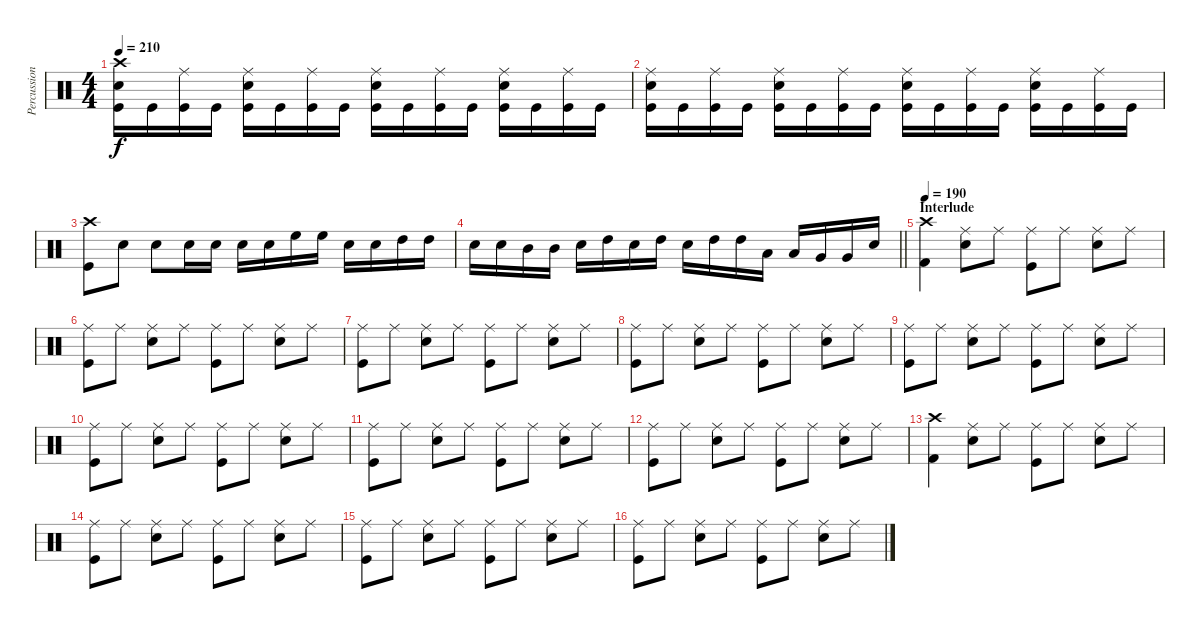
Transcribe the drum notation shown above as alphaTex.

\track ("Percussion" "Percussion") {instrument percussion}
\staff {score}
\articulation defaults
\ts (4 4)
\tempo 210
\clef neutral
\ks c
("Crash high (hit)" "Snare (hit) 2" "Kick (hit)").16{dy f} "Kick (hit)".16 ("Ride (middle)" "Kick (hit)").16 "Kick (hit)".16 ("Ride (middle)" "Snare (hit) 2" "Kick (hit)").16 "Kick (hit)".16 ("Ride (middle)" "Kick (hit)").16 "Kick (hit)".16 ("Ride (middle)" "Snare (hit) 2" "Kick (hit)").16 "Kick (hit)".16 ("Ride (middle)" "Kick (hit)").16 "Kick (hit)".16 ("Ride (middle)" "Snare (hit) 2" "Kick (hit)").16 "Kick (hit)".16 ("Ride (middle)" "Kick (hit)").16 "Kick (hit)".16 |
("Ride (middle)" "Snare (hit) 2" "Kick (hit)").16 "Kick (hit)".16 ("Ride (middle)" "Kick (hit)").16 "Kick (hit)".16 ("Ride (middle)" "Snare (hit) 2" "Kick (hit)").16 "Kick (hit)".16 ("Ride (middle)" "Kick (hit)").16 "Kick (hit)".16 ("Ride (middle)" "Snare (hit) 2" "Kick (hit)").16 "Kick (hit)".16 ("Ride (middle)" "Kick (hit)").16 "Kick (hit)".16 ("Ride (middle)" "Snare (hit) 2" "Kick (hit)").16 "Kick (hit)".16 ("Ride (middle)" "Kick (hit)").16 "Kick (hit)".16 |
("Crash high (hit)" "Kick (hit)").8 "Snare (hit) 2".8 "Snare (hit) 2".8 "Snare (hit) 2".16 "Snare (hit) 2".16 "Snare (hit) 2".16 "Snare (hit) 2".16 "High Floor Tom (hit)".16 "High Floor Tom (hit)".16 "Snare (hit) 2".16 "Snare (hit) 2".16 "High Tom (hit)".16 "High Tom (hit)".16 |
\barLineRight lightlight "Snare (hit) 2".16 "Snare (hit) 2".16 "Mid Tom (hit)".16 "Mid Tom (hit)".16 "Snare (hit) 2".16 "High Tom (hit)".16 "Snare (hit) 2".16 "High Tom (hit)".16 "Snare (hit) 2".16 "High Tom (hit)".16 "High Tom (hit)".16 "Low Tom (hit)".16 "Low Tom (hit)".16 "Very Low Tom (hit)".16 "Very Low Tom (hit)".16 "Snare (hit) 2".16
|
\section ("" "Interlude")
\tempo 190
("Crash high (hit)" "Kick (hit) 2").4 ("Ride (middle)" "Snare (hit) 2").8 "Ride (middle)".8 ("Ride (middle)" "Kick (hit)").8 "Ride (middle)".8 ("Ride (middle)" "Snare (hit) 2").8 "Ride (middle)".8 |
("Ride (middle)" "Kick (hit)").8 "Ride (middle)".8 ("Ride (middle)" "Snare (hit) 2").8 "Ride (middle)".8 ("Ride (middle)" "Kick (hit)").8 "Ride (middle)".8 ("Ride (middle)" "Snare (hit) 2").8 "Ride (middle)".8 |
("Ride (middle)" "Kick (hit)").8 "Ride (middle)".8 ("Ride (middle)" "Snare (hit) 2").8 "Ride (middle)".8 ("Ride (middle)" "Kick (hit)").8 "Ride (middle)".8 ("Ride (middle)" "Snare (hit) 2").8 "Ride (middle)".8 |
("Ride (middle)" "Kick (hit)").8 "Ride (middle)".8 ("Ride (middle)" "Snare (hit) 2").8 "Ride (middle)".8 ("Ride (middle)" "Kick (hit)").8 "Ride (middle)".8 ("Ride (middle)" "Snare (hit) 2").8 "Ride (middle)".8 |
("Ride (middle)" "Kick (hit)").8 "Ride (middle)".8 ("Ride (middle)" "Snare (hit) 2").8 "Ride (middle)".8 ("Ride (middle)" "Kick (hit)").8 "Ride (middle)".8 ("Ride (middle)" "Snare (hit) 2").8 "Ride (middle)".8 |
("Ride (middle)" "Kick (hit)").8 "Ride (middle)".8 ("Ride (middle)" "Snare (hit) 2").8 "Ride (middle)".8 ("Ride (middle)" "Kick (hit)").8 "Ride (middle)".8 ("Ride (middle)" "Snare (hit) 2").8 "Ride (middle)".8 |
("Ride (middle)" "Kick (hit)").8 "Ride (middle)".8 ("Ride (middle)" "Snare (hit) 2").8 "Ride (middle)".8 ("Ride (middle)" "Kick (hit)").8 "Ride (middle)".8 ("Ride (middle)" "Snare (hit) 2").8 "Ride (middle)".8 |
("Ride (middle)" "Kick (hit)").8 "Ride (middle)".8 ("Ride (middle)" "Snare (hit) 2").8 "Ride (middle)".8 ("Ride (middle)" "Kick (hit)").8 "Ride (middle)".8 ("Ride (middle)" "Snare (hit) 2").8 "Ride (middle)".8 |
("Crash high (hit)" "Kick (hit) 2").4 ("Ride (middle)" "Snare (hit) 2").8 "Ride (middle)".8 ("Ride (middle)" "Kick (hit)").8 "Ride (middle)".8 ("Ride (middle)" "Snare (hit) 2").8 "Ride (middle)".8 |
("Ride (middle)" "Kick (hit)").8 "Ride (middle)".8 ("Ride (middle)" "Snare (hit) 2").8 "Ride (middle)".8 ("Ride (middle)" "Kick (hit)").8 "Ride (middle)".8 ("Ride (middle)" "Snare (hit) 2").8 "Ride (middle)".8 |
("Ride (middle)" "Kick (hit)").8 "Ride (middle)".8 ("Ride (middle)" "Snare (hit) 2").8 "Ride (middle)".8 ("Ride (middle)" "Kick (hit)").8 "Ride (middle)".8 ("Ride (middle)" "Snare (hit) 2").8 "Ride (middle)".8 |
("Ride (middle)" "Kick (hit)").8 "Ride (middle)".8 ("Ride (middle)" "Snare (hit) 2").8 "Ride (middle)".8 ("Ride (middle)" "Kick (hit)").8 "Ride (middle)".8 ("Ride (middle)" "Snare (hit) 2").8 "Ride (middle)".8
